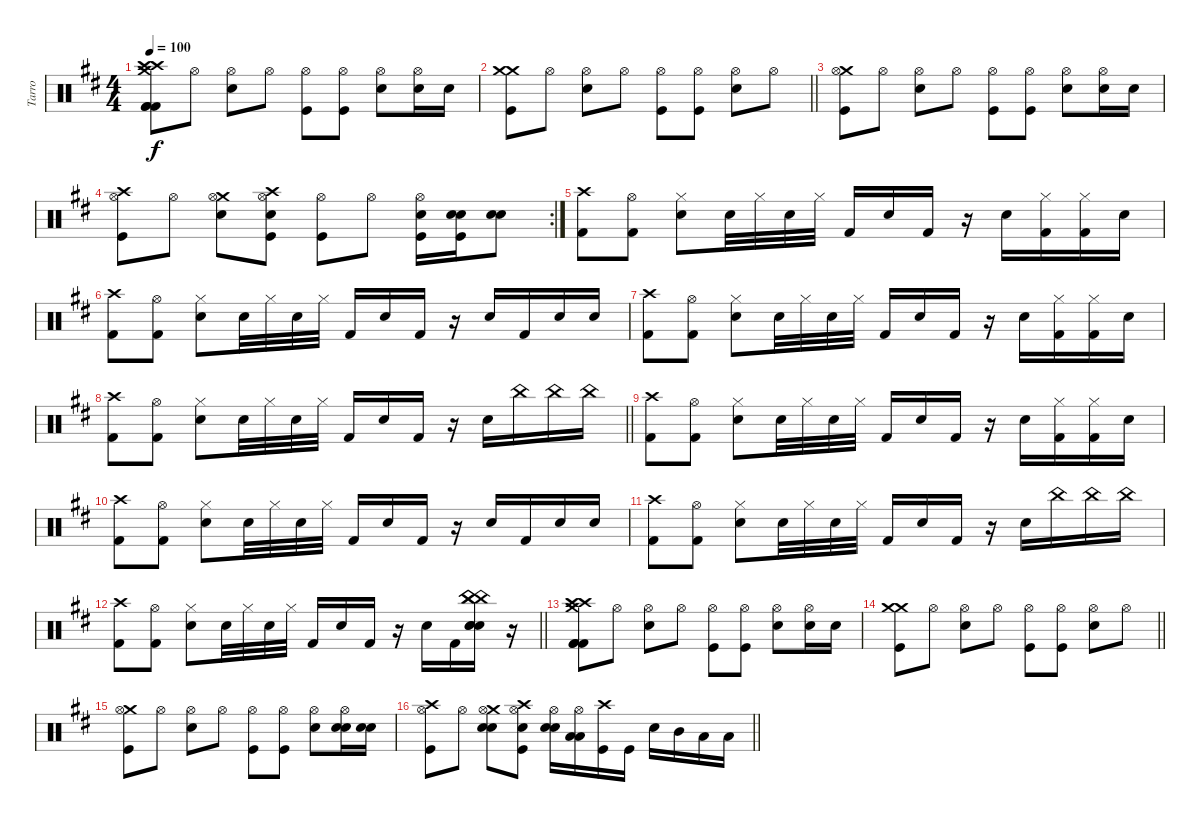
\track ("Tarro" "Tarro") {instrument percussion}
\staff {score}
\articulation defaults
\ts (4 4)
\tempo 100
\clef neutral
\ks d
("Crash medium (hit)" "Crash high (hit)" "Crash high (hit)" "Kick (hit) 2" "Kick (hit) 2" "Kick (hit) 2").8{dy f} "Hi-Hat (open)".8 ("Hi-Hat (open)" "Snare (hit) 2").8 "Hi-Hat (open)".8 ("Hi-Hat (open)" "Kick (hit)").8 ("Hi-Hat (open)" "Kick (hit)").8 ("Hi-Hat (open)" "Snare (hit) 2").8 ("Hi-Hat (open)" "Snare (hit) 2").16 "Snare (hit) 2".16 |
\barLineRight lightlight
("Crash medium (hit)" "Crash medium (hit)" "Kick (hit)").8 "Hi-Hat (open)".8 ("Hi-Hat (open)" "Snare (hit) 2").8 "Hi-Hat (open)".8 ("Hi-Hat (open)" "Kick (hit)").8 ("Hi-Hat (open)" "Kick (hit)").8 ("Hi-Hat (open)" "Snare (hit) 2").8 "Hi-Hat (open)".8 |
("Crash medium (hit)" "Hi-Hat (open)" "Kick (hit)").8 "Hi-Hat (open)".8 ("Hi-Hat (open)" "Snare (hit) 2").8 "Hi-Hat (open)".8 ("Hi-Hat (open)" "Kick (hit)").8 ("Hi-Hat (open)" "Kick (hit)").8 ("Hi-Hat (open)" "Snare (hit) 2").8 ("Hi-Hat (open)" "Snare (hit) 2").16 "Snare (hit) 2".16 |
\rc 2
("Crash high (hit)" "Hi-Hat (open)" "Kick (hit)").8 "Hi-Hat (open)".8 ("Crash medium (hit)" "Hi-Hat (open)" "Snare (hit) 2").8 ("Crash high (hit)" "Hi-Hat (open)" "Snare (hit) 2" "Kick (hit)").8 ("Hi-Hat (open)" "Kick (hit)").8 "Hi-Hat (open)".8 ("Hi-Hat (open)" "Snare (hit) 2" "Kick (hit)").16 ("Snare (hit) 2" "Snare (hit) 2" "Kick (hit)").16 ("Snare (hit) 2" "Snare (hit) 2").8 |
("Crash high (hit)" "Kick (hit) 2").8 ("Hi-Hat (open)" "Kick (hit) 2").8 ("Hi-Hat (closed)" "Snare (hit) 2").8 "Snare (hit) 2".32 "Hi-Hat (closed)".32 "Snare (hit) 2".32 "Hi-Hat (closed)".32 "Kick (hit) 2".16 "Snare (hit) 2".16 "Kick (hit) 2".16 r.16 "Snare (hit) 2".16 ("Kick (hit) 2" "Hi-Hat (closed)").16 ("Kick (hit) 2" "Hi-Hat (closed)").16 "Snare (hit) 2".16 |
("Crash high (hit)" "Kick (hit) 2").8 ("Hi-Hat (open)" "Kick (hit) 2").8 ("Hi-Hat (closed)" "Snare (hit) 2").8 "Snare (hit) 2".32 "Hi-Hat (closed)".32 "Snare (hit) 2".32 "Hi-Hat (closed)".32 "Kick (hit) 2".16 "Snare (hit) 2".16 "Kick (hit) 2".16 r.16 "Snare (hit) 2".16 "Kick (hit) 2".16 "Snare (hit) 2".16 "Snare (hit) 2".16 |
("Crash high (hit)" "Kick (hit) 2").8 ("Hi-Hat (open)" "Kick (hit) 2").8 ("Hi-Hat (closed)" "Snare (hit) 2").8 "Snare (hit) 2".32 "Hi-Hat (closed)".32 "Snare (hit) 2".32 "Hi-Hat (closed)".32 "Kick (hit) 2".16 "Snare (hit) 2".16 "Kick (hit) 2".16 r.16 "Snare (hit) 2".16 ("Kick (hit) 2" "Hi-Hat (closed)").16 ("Kick (hit) 2" "Hi-Hat (closed)").16 "Snare (hit) 2".16 |
\barLineRight lightlight
("Crash high (hit)" "Kick (hit) 2").8 ("Hi-Hat (open)" "Kick (hit) 2").8 ("Hi-Hat (closed)" "Snare (hit) 2").8 "Snare (hit) 2".32 "Hi-Hat (closed)".32 "Snare (hit) 2".32 "Hi-Hat (closed)".32 "Kick (hit) 2".16 "Snare (hit) 2".16 "Kick (hit) 2".16 r.16 "Snare (hit) 2".16 "China (hit)".16 "China (hit)".16 "China (hit)".16 |
("Crash high (hit)" "Kick (hit) 2").8 ("Hi-Hat (open)" "Kick (hit) 2").8 ("Hi-Hat (closed)" "Snare (hit) 2").8 "Snare (hit) 2".32 "Hi-Hat (closed)".32 "Snare (hit) 2".32 "Hi-Hat (closed)".32 "Kick (hit) 2".16 "Snare (hit) 2".16 "Kick (hit) 2".16 r.16 "Snare (hit) 2".16 ("Kick (hit) 2" "Hi-Hat (closed)").16 ("Kick (hit) 2" "Hi-Hat (closed)").16 "Snare (hit) 2".16 |
("Crash high (hit)" "Kick (hit) 2").8 ("Hi-Hat (open)" "Kick (hit) 2").8 ("Hi-Hat (closed)" "Snare (hit) 2").8 "Snare (hit) 2".32 "Hi-Hat (closed)".32 "Snare (hit) 2".32 "Hi-Hat (closed)".32 "Kick (hit) 2".16 "Snare (hit) 2".16 "Kick (hit) 2".16 r.16 "Snare (hit) 2".16 "Kick (hit) 2".16 "Snare (hit) 2".16 "Snare (hit) 2".16 |
("Crash high (hit)" "Kick (hit) 2").8 ("Hi-Hat (open)" "Kick (hit) 2").8 ("Hi-Hat (closed)" "Snare (hit) 2").8 "Snare (hit) 2".32 "Hi-Hat (closed)".32 "Snare (hit) 2".32 "Hi-Hat (closed)".32 "Kick (hit) 2".16 "Snare (hit) 2".16 "Kick (hit) 2".16 r.16 "Snare (hit) 2".16 "China (hit)".16 "China (hit)".16 "China (hit)".16 |
\barLineRight lightlight
("Crash high (hit)" "Kick (hit) 2").8 ("Hi-Hat (open)" "Kick (hit) 2").8 ("Hi-Hat (closed)" "Snare (hit) 2").8 "Snare (hit) 2".32 "Hi-Hat (closed)".32 "Snare (hit) 2".32 "Hi-Hat (closed)".32 "Kick (hit) 2".16 "Snare (hit) 2".16 "Kick (hit) 2".16 r.16 "Snare (hit) 2".16 "Kick (hit) 2".16 ("Snare (hit) 2" "Snare (hit) 2" "Snare (hit) 2" "China (hit)" "China (hit)" "China (hit)").16 r.16 |
("Crash medium (hit)" "Crash high (hit)" "Crash high (hit)" "Kick (hit) 2" "Kick (hit) 2" "Kick (hit) 2").8 "Hi-Hat (open)".8 ("Hi-Hat (open)" "Snare (hit) 2").8 "Hi-Hat (open)".8 ("Hi-Hat (open)" "Kick (hit)").8 ("Hi-Hat (open)" "Kick (hit)").8 ("Hi-Hat (open)" "Snare (hit) 2").8 ("Hi-Hat (open)" "Snare (hit) 2").16 "Snare (hit) 2".16 |
\barLineRight lightlight
("Crash medium (hit)" "Crash medium (hit)" "Kick (hit)").8 "Hi-Hat (open)".8 ("Hi-Hat (open)" "Snare (hit) 2").8 "Hi-Hat (open)".8 ("Hi-Hat (open)" "Kick (hit)").8 ("Hi-Hat (open)" "Kick (hit)").8 ("Hi-Hat (open)" "Snare (hit) 2").8 "Hi-Hat (open)".8 |
("Crash medium (hit)" "Hi-Hat (open)" "Kick (hit)").8 "Hi-Hat (open)".8 ("Hi-Hat (open)" "Snare (hit) 2").8 "Hi-Hat (open)".8 ("Hi-Hat (open)" "Kick (hit)").8 ("Hi-Hat (open)" "Kick (hit)").8 ("Hi-Hat (open)" "Snare (hit) 2").8 ("Hi-Hat (open)" "Snare (hit) 2" "Snare (hit) 2").16 ("Snare (hit) 2" "Snare (hit) 2").16 |
\barLineRight lightlight
("Crash high (hit)" "Hi-Hat (open)" "Kick (hit)").8 "Hi-Hat (open)".8 ("Crash medium (hit)" "Hi-Hat (open)" "Snare (hit) 2" "Snare (hit) 2").8 ("Crash high (hit)" "Hi-Hat (open)" "Snare (hit) 2" "Kick (hit)").8 ("Hi-Hat (open)" "Snare (hit) 2" "Snare (hit) 2").16 ("Hi-Hat (open)" "Low Floor Tom (hit)" "Low Floor Tom (hit)").16 ("Crash high (hit)" "Kick (hit)").16 "Kick (hit)".16 "Snare (hit) 2".16 "Mid Tom (hit)".16 "Low Tom (hit)".16 "Low Tom (hit)".16
